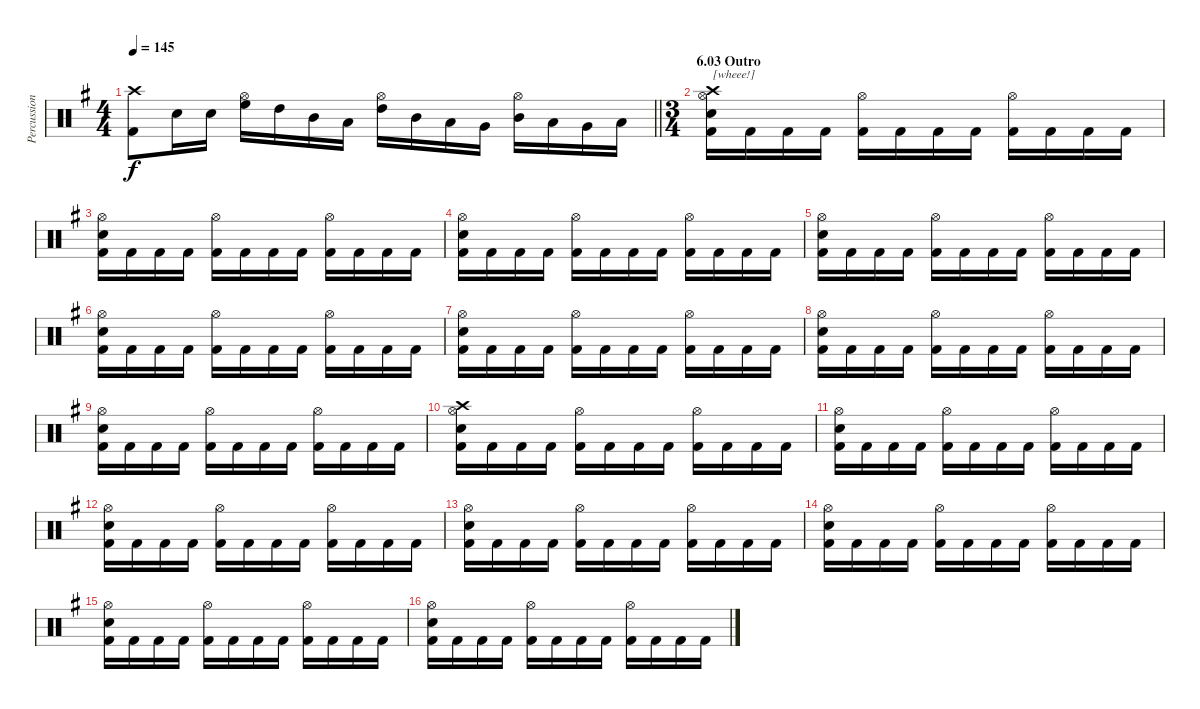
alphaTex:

\track ("Percussion" "Percussion") {instrument percussion}
\staff {score}
\articulation defaults
\ts (4 4)
\tempo 145
\clef neutral
\barLineRight lightlight
\ks eminor
("Crash high (hit)" "Kick (hit) 2").8{dy f} "Electric Snare (hit)".16 "Electric Snare (hit)".16 ("Hi-Hat (open)" "High Floor Tom (hit)").16 "High Tom (hit)".16 "Mid Tom (hit)".16 "Low Tom (hit)".16 ("Hi-Hat (open)" "High Tom (hit)").16 "Mid Tom (hit)".16 "Low Tom (hit)".16 "Very Low Tom (hit)".16 ("Hi-Hat (open)" "Mid Tom (hit)").16 "Low Tom (hit)".16 "Very Low Tom (hit)".16 "Low Floor Tom (hit)".16 |
\ts (3 4)
\section ("" "6.03 Outro")
("Crash high (hit)" "Hi-Hat (open)" "Electric Snare (hit)" "Kick (hit) 2").16{txt "[wheee!]"} "Kick (hit) 2".16 "Kick (hit) 2".16 "Kick (hit) 2".16 ("Hi-Hat (open)" "Kick (hit) 2").16 "Kick (hit) 2".16 "Kick (hit) 2".16 "Kick (hit) 2".16 ("Hi-Hat (open)" "Kick (hit) 2").16 "Kick (hit) 2".16 "Kick (hit) 2".16 "Kick (hit) 2".16 |
("Hi-Hat (open)" "Electric Snare (hit)" "Kick (hit) 2").16 "Kick (hit) 2".16 "Kick (hit) 2".16 "Kick (hit) 2".16 ("Hi-Hat (open)" "Kick (hit) 2").16 "Kick (hit) 2".16 "Kick (hit) 2".16 "Kick (hit) 2".16 ("Hi-Hat (open)" "Kick (hit) 2").16 "Kick (hit) 2".16 "Kick (hit) 2".16 "Kick (hit) 2".16 |
("Hi-Hat (open)" "Electric Snare (hit)" "Kick (hit) 2").16 "Kick (hit) 2".16 "Kick (hit) 2".16 "Kick (hit) 2".16 ("Hi-Hat (open)" "Kick (hit) 2").16 "Kick (hit) 2".16 "Kick (hit) 2".16 "Kick (hit) 2".16 ("Hi-Hat (open)" "Kick (hit) 2").16 "Kick (hit) 2".16 "Kick (hit) 2".16 "Kick (hit) 2".16 |
("Hi-Hat (open)" "Electric Snare (hit)" "Kick (hit) 2").16 "Kick (hit) 2".16 "Kick (hit) 2".16 "Kick (hit) 2".16 ("Hi-Hat (open)" "Kick (hit) 2").16 "Kick (hit) 2".16 "Kick (hit) 2".16 "Kick (hit) 2".16 ("Hi-Hat (open)" "Kick (hit) 2").16 "Kick (hit) 2".16 "Kick (hit) 2".16 "Kick (hit) 2".16 |
("Hi-Hat (open)" "Electric Snare (hit)" "Kick (hit) 2").16 "Kick (hit) 2".16 "Kick (hit) 2".16 "Kick (hit) 2".16 ("Hi-Hat (open)" "Kick (hit) 2").16 "Kick (hit) 2".16 "Kick (hit) 2".16 "Kick (hit) 2".16 ("Hi-Hat (open)" "Kick (hit) 2").16 "Kick (hit) 2".16 "Kick (hit) 2".16 "Kick (hit) 2".16 |
("Hi-Hat (open)" "Electric Snare (hit)" "Kick (hit) 2").16 "Kick (hit) 2".16 "Kick (hit) 2".16 "Kick (hit) 2".16 ("Hi-Hat (open)" "Kick (hit) 2").16 "Kick (hit) 2".16 "Kick (hit) 2".16 "Kick (hit) 2".16 ("Hi-Hat (open)" "Kick (hit) 2").16 "Kick (hit) 2".16 "Kick (hit) 2".16 "Kick (hit) 2".16 |
("Hi-Hat (open)" "Electric Snare (hit)" "Kick (hit) 2").16 "Kick (hit) 2".16 "Kick (hit) 2".16 "Kick (hit) 2".16 ("Hi-Hat (open)" "Kick (hit) 2").16 "Kick (hit) 2".16 "Kick (hit) 2".16 "Kick (hit) 2".16 ("Hi-Hat (open)" "Kick (hit) 2").16 "Kick (hit) 2".16 "Kick (hit) 2".16 "Kick (hit) 2".16 |
("Hi-Hat (open)" "Electric Snare (hit)" "Kick (hit) 2").16 "Kick (hit) 2".16 "Kick (hit) 2".16 "Kick (hit) 2".16 ("Hi-Hat (open)" "Kick (hit) 2").16 "Kick (hit) 2".16 "Kick (hit) 2".16 "Kick (hit) 2".16 ("Hi-Hat (open)" "Kick (hit) 2").16 "Kick (hit) 2".16 "Kick (hit) 2".16 "Kick (hit) 2".16 |
("Crash high (hit)" "Hi-Hat (open)" "Electric Snare (hit)" "Kick (hit) 2").16 "Kick (hit) 2".16 "Kick (hit) 2".16 "Kick (hit) 2".16 ("Hi-Hat (open)" "Kick (hit) 2").16 "Kick (hit) 2".16 "Kick (hit) 2".16 "Kick (hit) 2".16 ("Hi-Hat (open)" "Kick (hit) 2").16 "Kick (hit) 2".16 "Kick (hit) 2".16 "Kick (hit) 2".16 |
("Hi-Hat (open)" "Electric Snare (hit)" "Kick (hit) 2").16 "Kick (hit) 2".16 "Kick (hit) 2".16 "Kick (hit) 2".16 ("Hi-Hat (open)" "Kick (hit) 2").16 "Kick (hit) 2".16 "Kick (hit) 2".16 "Kick (hit) 2".16 ("Hi-Hat (open)" "Kick (hit) 2").16 "Kick (hit) 2".16 "Kick (hit) 2".16 "Kick (hit) 2".16 |
("Hi-Hat (open)" "Electric Snare (hit)" "Kick (hit) 2").16 "Kick (hit) 2".16 "Kick (hit) 2".16 "Kick (hit) 2".16 ("Hi-Hat (open)" "Kick (hit) 2").16 "Kick (hit) 2".16 "Kick (hit) 2".16 "Kick (hit) 2".16 ("Hi-Hat (open)" "Kick (hit) 2").16 "Kick (hit) 2".16 "Kick (hit) 2".16 "Kick (hit) 2".16 |
("Hi-Hat (open)" "Electric Snare (hit)" "Kick (hit) 2").16 "Kick (hit) 2".16 "Kick (hit) 2".16 "Kick (hit) 2".16 ("Hi-Hat (open)" "Kick (hit) 2").16 "Kick (hit) 2".16 "Kick (hit) 2".16 "Kick (hit) 2".16 ("Hi-Hat (open)" "Kick (hit) 2").16 "Kick (hit) 2".16 "Kick (hit) 2".16 "Kick (hit) 2".16 |
("Hi-Hat (open)" "Electric Snare (hit)" "Kick (hit) 2").16 "Kick (hit) 2".16 "Kick (hit) 2".16 "Kick (hit) 2".16 ("Hi-Hat (open)" "Kick (hit) 2").16 "Kick (hit) 2".16 "Kick (hit) 2".16 "Kick (hit) 2".16 ("Hi-Hat (open)" "Kick (hit) 2").16 "Kick (hit) 2".16 "Kick (hit) 2".16 "Kick (hit) 2".16 |
("Hi-Hat (open)" "Electric Snare (hit)" "Kick (hit) 2").16 "Kick (hit) 2".16 "Kick (hit) 2".16 "Kick (hit) 2".16 ("Hi-Hat (open)" "Kick (hit) 2").16 "Kick (hit) 2".16 "Kick (hit) 2".16 "Kick (hit) 2".16 ("Hi-Hat (open)" "Kick (hit) 2").16 "Kick (hit) 2".16 "Kick (hit) 2".16 "Kick (hit) 2".16 |
("Hi-Hat (open)" "Electric Snare (hit)" "Kick (hit) 2").16 "Kick (hit) 2".16 "Kick (hit) 2".16 "Kick (hit) 2".16 ("Hi-Hat (open)" "Kick (hit) 2").16 "Kick (hit) 2".16 "Kick (hit) 2".16 "Kick (hit) 2".16 ("Hi-Hat (open)" "Kick (hit) 2").16 "Kick (hit) 2".16 "Kick (hit) 2".16 "Kick (hit) 2".16
